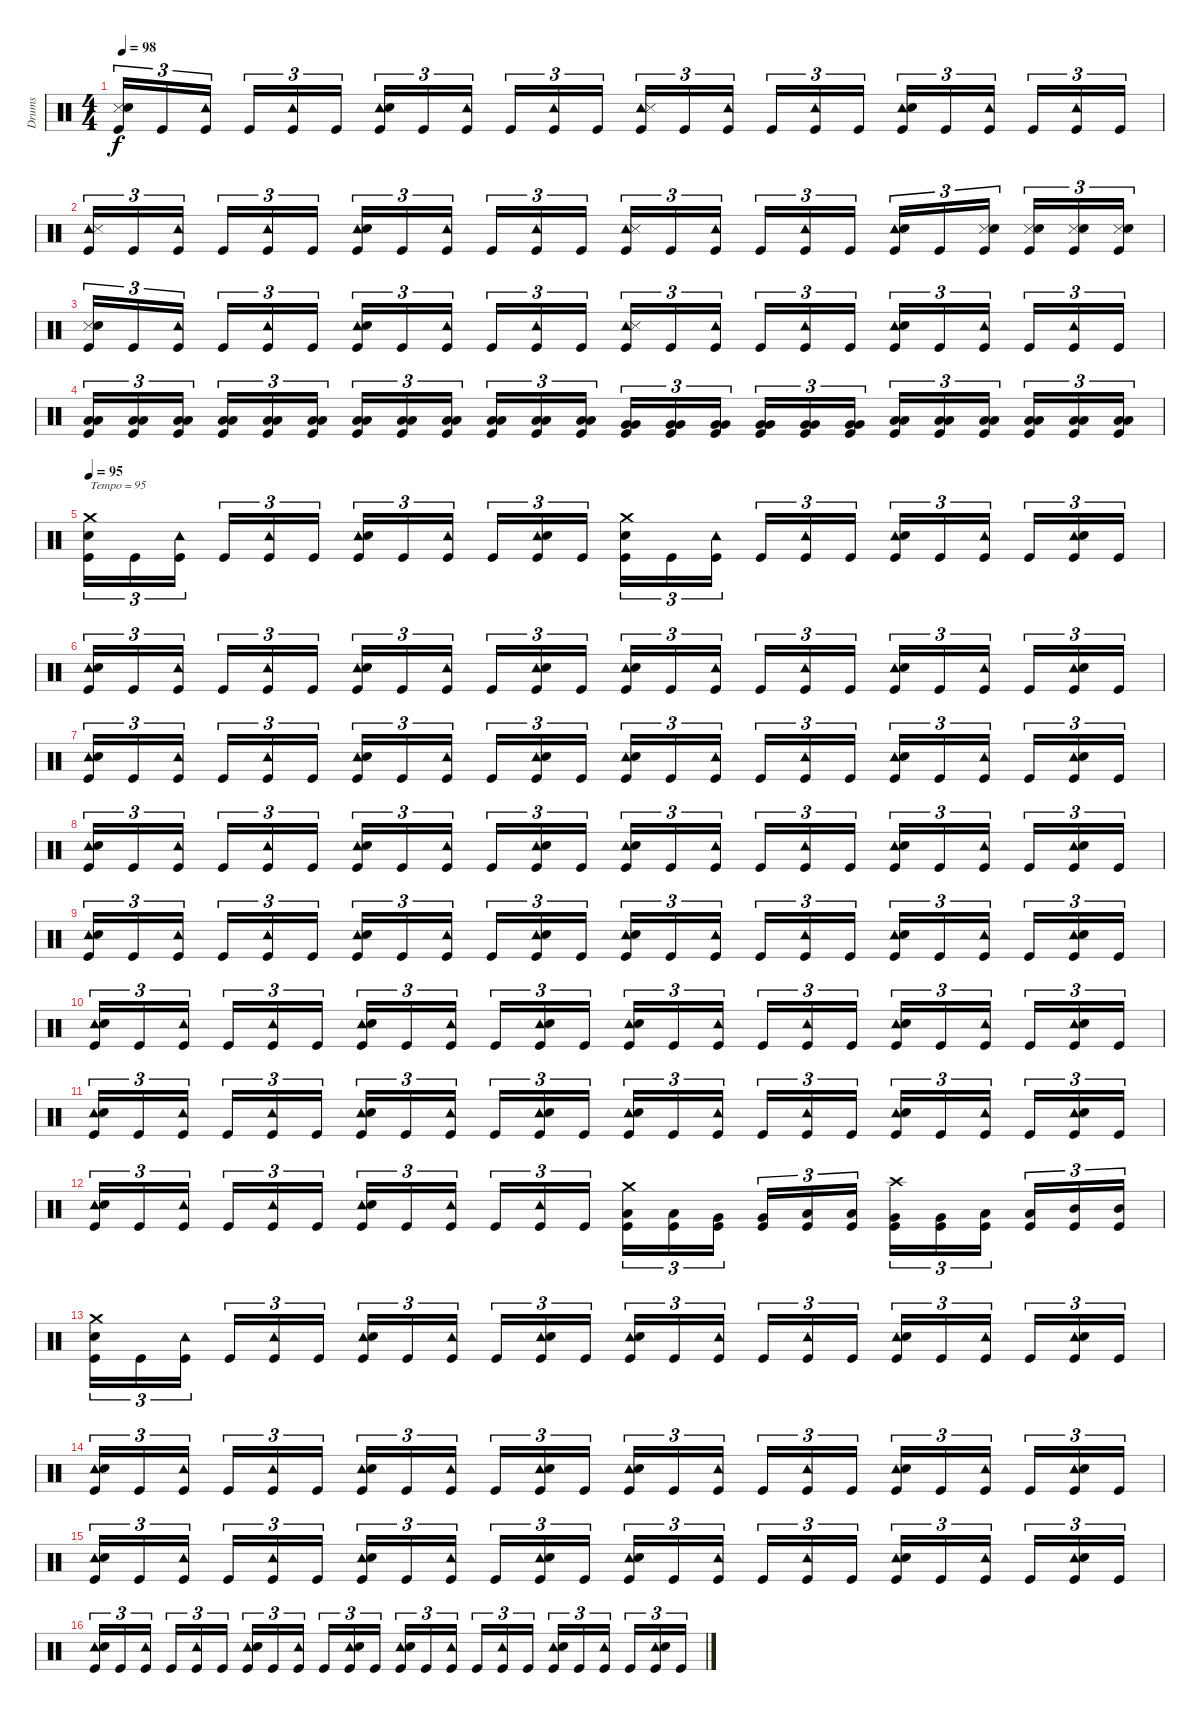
\track ("Drums" "Drums") {instrument percussion}
\staff {score}
\articulation defaults
\ts (4 4)
\tempo 98
\clef neutral
\ks c
("Snare (side stick) 3" "Snare (hit) 2" "Kick (hit)").16{tu (3 2) dy f} "Kick (hit)".16{tu (3 2)} ("Tambourine (hit)" "Kick (hit)").16{tu (3 2)} "Kick (hit)".16{tu (3 2)} ("Tambourine (hit)" "Kick (hit)").16{tu (3 2)} "Kick (hit)".16{tu (3 2)} ("Tambourine (hit)" "Snare (hit) 2" "Kick (hit)").16{tu (3 2)} "Kick (hit)".16{tu (3 2)} ("Tambourine (hit)" "Kick (hit)").16{tu (3 2)} "Kick (hit)".16{tu (3 2)} ("Tambourine (hit)" "Kick (hit)").16{tu (3 2)} "Kick (hit)".16{tu (3 2)} ("Tambourine (hit)" "Snare (side stick) 3" "Kick (hit)").16{tu (3 2)} "Kick (hit)".16{tu (3 2)} ("Tambourine (hit)" "Kick (hit)").16{tu (3 2)} "Kick (hit)".16{tu (3 2)} ("Tambourine (hit)" "Kick (hit)").16{tu (3 2)} "Kick (hit)".16{tu (3 2)} ("Tambourine (hit)" "Snare (hit) 2" "Kick (hit)").16{tu (3 2)} "Kick (hit)".16{tu (3 2)} ("Tambourine (hit)" "Kick (hit)").16{tu (3 2)} "Kick (hit)".16{tu (3 2)} ("Tambourine (hit)" "Kick (hit)").16{tu (3 2)} "Kick (hit)".16{tu (3 2)} |
("Tambourine (hit)" "Snare (side stick) 3" "Kick (hit)").16{tu (3 2)} "Kick (hit)".16{tu (3 2)} ("Tambourine (hit)" "Kick (hit)").16{tu (3 2)} "Kick (hit)".16{tu (3 2)} ("Tambourine (hit)" "Kick (hit)").16{tu (3 2)} "Kick (hit)".16{tu (3 2)} ("Tambourine (hit)" "Snare (hit) 2" "Kick (hit)").16{tu (3 2)} "Kick (hit)".16{tu (3 2)} ("Tambourine (hit)" "Kick (hit)").16{tu (3 2)} "Kick (hit)".16{tu (3 2)} ("Tambourine (hit)" "Kick (hit)").16{tu (3 2)} "Kick (hit)".16{tu (3 2)} ("Tambourine (hit)" "Snare (side stick) 3" "Kick (hit)").16{tu (3 2)} "Kick (hit)".16{tu (3 2)} ("Tambourine (hit)" "Kick (hit)").16{tu (3 2)} "Kick (hit)".16{tu (3 2)} ("Tambourine (hit)" "Kick (hit)").16{tu (3 2)} "Kick (hit)".16{tu (3 2)} ("Tambourine (hit)" "Snare (hit) 2" "Kick (hit)").16{tu (3 2)} "Kick (hit)".16{tu (3 2)} ("Snare (side stick) 3" "Snare (hit) 2" "Kick (hit)").16{tu (3 2)} ("Snare (side stick) 3" "Snare (hit) 2" "Kick (hit)").16{tu (3 2)} ("Snare (side stick) 3" "Snare (hit) 2" "Kick (hit)").16{tu (3 2)} ("Snare (side stick) 3" "Snare (hit) 2" "Kick (hit)").16{tu (3 2)} |
("Snare (side stick) 3" "Snare (hit) 2" "Kick (hit)").16{tu (3 2)} "Kick (hit)".16{tu (3 2)} ("Tambourine (hit)" "Kick (hit)").16{tu (3 2)} "Kick (hit)".16{tu (3 2)} ("Tambourine (hit)" "Kick (hit)").16{tu (3 2)} "Kick (hit)".16{tu (3 2)} ("Tambourine (hit)" "Snare (hit) 2" "Kick (hit)").16{tu (3 2)} "Kick (hit)".16{tu (3 2)} ("Tambourine (hit)" "Kick (hit)").16{tu (3 2)} "Kick (hit)".16{tu (3 2)} ("Tambourine (hit)" "Kick (hit)").16{tu (3 2)} "Kick (hit)".16{tu (3 2)} ("Tambourine (hit)" "Snare (side stick) 3" "Kick (hit)").16{tu (3 2)} "Kick (hit)".16{tu (3 2)} ("Tambourine (hit)" "Kick (hit)").16{tu (3 2)} "Kick (hit)".16{tu (3 2)} ("Tambourine (hit)" "Kick (hit)").16{tu (3 2)} "Kick (hit)".16{tu (3 2)} ("Tambourine (hit)" "Snare (hit) 2" "Kick (hit)").16{tu (3 2)} "Kick (hit)".16{tu (3 2)} ("Tambourine (hit)" "Kick (hit)").16{tu (3 2)} "Kick (hit)".16{tu (3 2)} ("Tambourine (hit)" "Kick (hit)").16{tu (3 2)} "Kick (hit)".16{tu (3 2)} |
("Low Floor Tom (hit)" "Low Floor Tom (hit)" "Kick (hit)").16{tu (3 2)} ("Low Floor Tom (hit)" "Low Floor Tom (hit)" "Kick (hit)").16{tu (3 2)} ("Low Floor Tom (hit)" "Low Floor Tom (hit)" "Kick (hit)").16{tu (3 2)} ("Low Floor Tom (hit)" "Low Floor Tom (hit)" "Kick (hit)").16{tu (3 2)} ("Low Floor Tom (hit)" "Low Floor Tom (hit)" "Kick (hit)").16{tu (3 2)} ("Low Floor Tom (hit)" "Low Floor Tom (hit)" "Kick (hit)").16{tu (3 2)} ("Low Floor Tom (hit)" "Low Floor Tom (hit)" "Kick (hit)").16{tu (3 2)} ("Low Floor Tom (hit)" "Low Floor Tom (hit)" "Kick (hit)").16{tu (3 2)} ("Low Floor Tom (hit)" "Low Floor Tom (hit)" "Kick (hit)").16{tu (3 2)} ("Low Floor Tom (hit)" "Low Floor Tom (hit)" "Kick (hit)").16{tu (3 2)} ("Low Floor Tom (hit)" "Low Floor Tom (hit)" "Kick (hit)").16{tu (3 2)} ("Low Floor Tom (hit)" "Low Floor Tom (hit)" "Kick (hit)").16{tu (3 2)} ("Very Low Tom (hit)" "Very Low Tom (hit)" "Kick (hit)").16{tu (3 2)} ("Very Low Tom (hit)" "Very Low Tom (hit)" "Kick (hit)").16{tu (3 2)} ("Very Low Tom (hit)" "Very Low Tom (hit)" "Kick (hit)").16{tu (3 2)} ("Very Low Tom (hit)" "Very Low Tom (hit)" "Kick (hit)").16{tu (3 2)} ("Very Low Tom (hit)" "Very Low Tom (hit)" "Kick (hit)").16{tu (3 2)} ("Very Low Tom (hit)" "Very Low Tom (hit)" "Kick (hit)").16{tu (3 2)} ("Low Tom (hit)" "Low Tom (hit)" "Kick (hit)").16{tu (3 2)} ("Low Tom (hit)" "Low Tom (hit)" "Kick (hit)").16{tu (3 2)} ("Low Tom (hit)" "Low Tom (hit)" "Kick (hit)").16{tu (3 2)} ("Low Tom (hit)" "Low Tom (hit)" "Kick (hit)").16{tu (3 2)} ("Low Tom (hit)" "Low Tom (hit)" "Kick (hit)").16{tu (3 2)} ("Low Tom (hit)" "Low Tom (hit)" "Kick (hit)").16{tu (3 2)} |
\tempo 95
("Crash medium (hit)" "Snare (hit) 2" "Kick (hit)").16{tu (3 2) txt "Tempo = 95"} "Kick (hit)".16{tu (3 2)} ("Tambourine (hit)" "Kick (hit)").16{tu (3 2)} "Kick (hit)".16{tu (3 2)} ("Tambourine (hit)" "Kick (hit)").16{tu (3 2)} "Kick (hit)".16{tu (3 2)} ("Tambourine (hit)" "Snare (hit) 2" "Kick (hit)").16{tu (3 2)} "Kick (hit)".16{tu (3 2)} ("Tambourine (hit)" "Kick (hit)").16{tu (3 2)} "Kick (hit)".16{tu (3 2)} ("Tambourine (hit)" "Snare (hit) 2" "Kick (hit)").16{tu (3 2)} "Kick (hit)".16{tu (3 2)} ("Crash medium (hit)" "Snare (hit) 2" "Kick (hit)").16{tu (3 2)} "Kick (hit)".16{tu (3 2)} ("Tambourine (hit)" "Kick (hit)").16{tu (3 2)} "Kick (hit)".16{tu (3 2)} ("Tambourine (hit)" "Kick (hit)").16{tu (3 2)} "Kick (hit)".16{tu (3 2)} ("Tambourine (hit)" "Snare (hit) 2" "Kick (hit)").16{tu (3 2)} "Kick (hit)".16{tu (3 2)} ("Tambourine (hit)" "Kick (hit)").16{tu (3 2)} "Kick (hit)".16{tu (3 2)} ("Tambourine (hit)" "Snare (hit) 2" "Kick (hit)").16{tu (3 2)} "Kick (hit)".16{tu (3 2)} |
("Tambourine (hit)" "Snare (hit) 2" "Kick (hit)").16{tu (3 2)} "Kick (hit)".16{tu (3 2)} ("Tambourine (hit)" "Kick (hit)").16{tu (3 2)} "Kick (hit)".16{tu (3 2)} ("Tambourine (hit)" "Kick (hit)").16{tu (3 2)} "Kick (hit)".16{tu (3 2)} ("Tambourine (hit)" "Snare (hit) 2" "Kick (hit)").16{tu (3 2)} "Kick (hit)".16{tu (3 2)} ("Tambourine (hit)" "Kick (hit)").16{tu (3 2)} "Kick (hit)".16{tu (3 2)} ("Tambourine (hit)" "Snare (hit) 2" "Kick (hit)").16{tu (3 2)} "Kick (hit)".16{tu (3 2)} ("Tambourine (hit)" "Snare (hit) 2" "Kick (hit)").16{tu (3 2)} "Kick (hit)".16{tu (3 2)} ("Tambourine (hit)" "Kick (hit)").16{tu (3 2)} "Kick (hit)".16{tu (3 2)} ("Tambourine (hit)" "Kick (hit)").16{tu (3 2)} "Kick (hit)".16{tu (3 2)} ("Tambourine (hit)" "Snare (hit) 2" "Kick (hit)").16{tu (3 2)} "Kick (hit)".16{tu (3 2)} ("Tambourine (hit)" "Kick (hit)").16{tu (3 2)} "Kick (hit)".16{tu (3 2)} ("Tambourine (hit)" "Snare (hit) 2" "Kick (hit)").16{tu (3 2)} "Kick (hit)".16{tu (3 2)} |
("Tambourine (hit)" "Snare (hit) 2" "Kick (hit)").16{tu (3 2)} "Kick (hit)".16{tu (3 2)} ("Tambourine (hit)" "Kick (hit)").16{tu (3 2)} "Kick (hit)".16{tu (3 2)} ("Tambourine (hit)" "Kick (hit)").16{tu (3 2)} "Kick (hit)".16{tu (3 2)} ("Tambourine (hit)" "Snare (hit) 2" "Kick (hit)").16{tu (3 2)} "Kick (hit)".16{tu (3 2)} ("Tambourine (hit)" "Kick (hit)").16{tu (3 2)} "Kick (hit)".16{tu (3 2)} ("Tambourine (hit)" "Snare (hit) 2" "Kick (hit)").16{tu (3 2)} "Kick (hit)".16{tu (3 2)} ("Tambourine (hit)" "Snare (hit) 2" "Kick (hit)").16{tu (3 2)} "Kick (hit)".16{tu (3 2)} ("Tambourine (hit)" "Kick (hit)").16{tu (3 2)} "Kick (hit)".16{tu (3 2)} ("Tambourine (hit)" "Kick (hit)").16{tu (3 2)} "Kick (hit)".16{tu (3 2)} ("Tambourine (hit)" "Snare (hit) 2" "Kick (hit)").16{tu (3 2)} "Kick (hit)".16{tu (3 2)} ("Tambourine (hit)" "Kick (hit)").16{tu (3 2)} "Kick (hit)".16{tu (3 2)} ("Tambourine (hit)" "Snare (hit) 2" "Kick (hit)").16{tu (3 2)} "Kick (hit)".16{tu (3 2)} |
("Tambourine (hit)" "Snare (hit) 2" "Kick (hit)").16{tu (3 2)} "Kick (hit)".16{tu (3 2)} ("Tambourine (hit)" "Kick (hit)").16{tu (3 2)} "Kick (hit)".16{tu (3 2)} ("Tambourine (hit)" "Kick (hit)").16{tu (3 2)} "Kick (hit)".16{tu (3 2)} ("Tambourine (hit)" "Snare (hit) 2" "Kick (hit)").16{tu (3 2)} "Kick (hit)".16{tu (3 2)} ("Tambourine (hit)" "Kick (hit)").16{tu (3 2)} "Kick (hit)".16{tu (3 2)} ("Tambourine (hit)" "Snare (hit) 2" "Kick (hit)").16{tu (3 2)} "Kick (hit)".16{tu (3 2)} ("Tambourine (hit)" "Snare (hit) 2" "Kick (hit)").16{tu (3 2)} "Kick (hit)".16{tu (3 2)} ("Tambourine (hit)" "Kick (hit)").16{tu (3 2)} "Kick (hit)".16{tu (3 2)} ("Tambourine (hit)" "Kick (hit)").16{tu (3 2)} "Kick (hit)".16{tu (3 2)} ("Tambourine (hit)" "Snare (hit) 2" "Kick (hit)").16{tu (3 2)} "Kick (hit)".16{tu (3 2)} ("Tambourine (hit)" "Kick (hit)").16{tu (3 2)} "Kick (hit)".16{tu (3 2)} ("Tambourine (hit)" "Snare (hit) 2" "Kick (hit)").16{tu (3 2)} "Kick (hit)".16{tu (3 2)} |
("Tambourine (hit)" "Snare (hit) 2" "Kick (hit)").16{tu (3 2)} "Kick (hit)".16{tu (3 2)} ("Tambourine (hit)" "Kick (hit)").16{tu (3 2)} "Kick (hit)".16{tu (3 2)} ("Tambourine (hit)" "Kick (hit)").16{tu (3 2)} "Kick (hit)".16{tu (3 2)} ("Tambourine (hit)" "Snare (hit) 2" "Kick (hit)").16{tu (3 2)} "Kick (hit)".16{tu (3 2)} ("Tambourine (hit)" "Kick (hit)").16{tu (3 2)} "Kick (hit)".16{tu (3 2)} ("Tambourine (hit)" "Snare (hit) 2" "Kick (hit)").16{tu (3 2)} "Kick (hit)".16{tu (3 2)} ("Tambourine (hit)" "Snare (hit) 2" "Kick (hit)").16{tu (3 2)} "Kick (hit)".16{tu (3 2)} ("Tambourine (hit)" "Kick (hit)").16{tu (3 2)} "Kick (hit)".16{tu (3 2)} ("Tambourine (hit)" "Kick (hit)").16{tu (3 2)} "Kick (hit)".16{tu (3 2)} ("Tambourine (hit)" "Snare (hit) 2" "Kick (hit)").16{tu (3 2)} "Kick (hit)".16{tu (3 2)} ("Tambourine (hit)" "Kick (hit)").16{tu (3 2)} "Kick (hit)".16{tu (3 2)} ("Tambourine (hit)" "Snare (hit) 2" "Kick (hit)").16{tu (3 2)} "Kick (hit)".16{tu (3 2)} |
("Tambourine (hit)" "Snare (hit) 2" "Kick (hit)").16{tu (3 2)} "Kick (hit)".16{tu (3 2)} ("Tambourine (hit)" "Kick (hit)").16{tu (3 2)} "Kick (hit)".16{tu (3 2)} ("Tambourine (hit)" "Kick (hit)").16{tu (3 2)} "Kick (hit)".16{tu (3 2)} ("Tambourine (hit)" "Snare (hit) 2" "Kick (hit)").16{tu (3 2)} "Kick (hit)".16{tu (3 2)} ("Tambourine (hit)" "Kick (hit)").16{tu (3 2)} "Kick (hit)".16{tu (3 2)} ("Tambourine (hit)" "Snare (hit) 2" "Kick (hit)").16{tu (3 2)} "Kick (hit)".16{tu (3 2)} ("Tambourine (hit)" "Snare (hit) 2" "Kick (hit)").16{tu (3 2)} "Kick (hit)".16{tu (3 2)} ("Tambourine (hit)" "Kick (hit)").16{tu (3 2)} "Kick (hit)".16{tu (3 2)} ("Tambourine (hit)" "Kick (hit)").16{tu (3 2)} "Kick (hit)".16{tu (3 2)} ("Tambourine (hit)" "Snare (hit) 2" "Kick (hit)").16{tu (3 2)} "Kick (hit)".16{tu (3 2)} ("Tambourine (hit)" "Kick (hit)").16{tu (3 2)} "Kick (hit)".16{tu (3 2)} ("Tambourine (hit)" "Snare (hit) 2" "Kick (hit)").16{tu (3 2)} "Kick (hit)".16{tu (3 2)} |
("Tambourine (hit)" "Snare (hit) 2" "Kick (hit)").16{tu (3 2)} "Kick (hit)".16{tu (3 2)} ("Tambourine (hit)" "Kick (hit)").16{tu (3 2)} "Kick (hit)".16{tu (3 2)} ("Tambourine (hit)" "Kick (hit)").16{tu (3 2)} "Kick (hit)".16{tu (3 2)} ("Tambourine (hit)" "Snare (hit) 2" "Kick (hit)").16{tu (3 2)} "Kick (hit)".16{tu (3 2)} ("Tambourine (hit)" "Kick (hit)").16{tu (3 2)} "Kick (hit)".16{tu (3 2)} ("Tambourine (hit)" "Snare (hit) 2" "Kick (hit)").16{tu (3 2)} "Kick (hit)".16{tu (3 2)} ("Tambourine (hit)" "Snare (hit) 2" "Kick (hit)").16{tu (3 2)} "Kick (hit)".16{tu (3 2)} ("Tambourine (hit)" "Kick (hit)").16{tu (3 2)} "Kick (hit)".16{tu (3 2)} ("Tambourine (hit)" "Kick (hit)").16{tu (3 2)} "Kick (hit)".16{tu (3 2)} ("Tambourine (hit)" "Snare (hit) 2" "Kick (hit)").16{tu (3 2)} "Kick (hit)".16{tu (3 2)} ("Tambourine (hit)" "Kick (hit)").16{tu (3 2)} "Kick (hit)".16{tu (3 2)} ("Tambourine (hit)" "Snare (hit) 2" "Kick (hit)").16{tu (3 2)} "Kick (hit)".16{tu (3 2)} |
("Tambourine (hit)" "Snare (hit) 2" "Kick (hit)").16{tu (3 2)} "Kick (hit)".16{tu (3 2)} ("Tambourine (hit)" "Kick (hit)").16{tu (3 2)} "Kick (hit)".16{tu (3 2)} ("Tambourine (hit)" "Kick (hit)").16{tu (3 2)} "Kick (hit)".16{tu (3 2)} ("Tambourine (hit)" "Snare (hit) 2" "Kick (hit)").16{tu (3 2)} "Kick (hit)".16{tu (3 2)} ("Tambourine (hit)" "Kick (hit)").16{tu (3 2)} "Kick (hit)".16{tu (3 2)} ("Tambourine (hit)" "Kick (hit)").16{tu (3 2)} "Kick (hit)".16{tu (3 2)} ("Crash medium (hit)" "Low Floor Tom (hit)" "Kick (hit)").16{tu (3 2)} ("Low Floor Tom (hit)" "Kick (hit)").16{tu (3 2)} ("Very Low Tom (hit)" "Kick (hit)").16{tu (3 2)} ("Very Low Tom (hit)" "Kick (hit)").16{tu (3 2)} ("Low Tom (hit)" "Kick (hit)").16{tu (3 2)} ("Low Tom (hit)" "Kick (hit)").16{tu (3 2)} ("Crash high (hit)" "Very Low Tom (hit)" "Kick (hit)").16{tu (3 2)} ("Very Low Tom (hit)" "Kick (hit)").16{tu (3 2)} ("Low Tom (hit)" "Kick (hit)").16{tu (3 2)} ("Low Tom (hit)" "Kick (hit)").16{tu (3 2)} ("Mid Tom (hit)" "Kick (hit)").16{tu (3 2)} ("Mid Tom (hit)" "Kick (hit)").16{tu (3 2)} |
("Crash medium (hit)" "Snare (hit) 2" "Kick (hit)").16{tu (3 2)} "Kick (hit)".16{tu (3 2)} ("Tambourine (hit)" "Kick (hit)").16{tu (3 2)} "Kick (hit)".16{tu (3 2)} ("Tambourine (hit)" "Kick (hit)").16{tu (3 2)} "Kick (hit)".16{tu (3 2)} ("Tambourine (hit)" "Snare (hit) 2" "Kick (hit)").16{tu (3 2)} "Kick (hit)".16{tu (3 2)} ("Tambourine (hit)" "Kick (hit)").16{tu (3 2)} "Kick (hit)".16{tu (3 2)} ("Tambourine (hit)" "Snare (hit) 2" "Kick (hit)").16{tu (3 2)} "Kick (hit)".16{tu (3 2)} ("Tambourine (hit)" "Snare (hit) 2" "Kick (hit)").16{tu (3 2)} "Kick (hit)".16{tu (3 2)} ("Tambourine (hit)" "Kick (hit)").16{tu (3 2)} "Kick (hit)".16{tu (3 2)} ("Tambourine (hit)" "Kick (hit)").16{tu (3 2)} "Kick (hit)".16{tu (3 2)} ("Tambourine (hit)" "Snare (hit) 2" "Kick (hit)").16{tu (3 2)} "Kick (hit)".16{tu (3 2)} ("Tambourine (hit)" "Kick (hit)").16{tu (3 2)} "Kick (hit)".16{tu (3 2)} ("Tambourine (hit)" "Snare (hit) 2" "Kick (hit)").16{tu (3 2)} "Kick (hit)".16{tu (3 2)} |
("Tambourine (hit)" "Snare (hit) 2" "Kick (hit)").16{tu (3 2)} "Kick (hit)".16{tu (3 2)} ("Tambourine (hit)" "Kick (hit)").16{tu (3 2)} "Kick (hit)".16{tu (3 2)} ("Tambourine (hit)" "Kick (hit)").16{tu (3 2)} "Kick (hit)".16{tu (3 2)} ("Tambourine (hit)" "Snare (hit) 2" "Kick (hit)").16{tu (3 2)} "Kick (hit)".16{tu (3 2)} ("Tambourine (hit)" "Kick (hit)").16{tu (3 2)} "Kick (hit)".16{tu (3 2)} ("Tambourine (hit)" "Snare (hit) 2" "Kick (hit)").16{tu (3 2)} "Kick (hit)".16{tu (3 2)} ("Tambourine (hit)" "Snare (hit) 2" "Kick (hit)").16{tu (3 2)} "Kick (hit)".16{tu (3 2)} ("Tambourine (hit)" "Kick (hit)").16{tu (3 2)} "Kick (hit)".16{tu (3 2)} ("Tambourine (hit)" "Kick (hit)").16{tu (3 2)} "Kick (hit)".16{tu (3 2)} ("Tambourine (hit)" "Snare (hit) 2" "Kick (hit)").16{tu (3 2)} "Kick (hit)".16{tu (3 2)} ("Tambourine (hit)" "Kick (hit)").16{tu (3 2)} "Kick (hit)".16{tu (3 2)} ("Tambourine (hit)" "Snare (hit) 2" "Kick (hit)").16{tu (3 2)} "Kick (hit)".16{tu (3 2)} |
("Tambourine (hit)" "Snare (hit) 2" "Kick (hit)").16{tu (3 2)} "Kick (hit)".16{tu (3 2)} ("Tambourine (hit)" "Kick (hit)").16{tu (3 2)} "Kick (hit)".16{tu (3 2)} ("Tambourine (hit)" "Kick (hit)").16{tu (3 2)} "Kick (hit)".16{tu (3 2)} ("Tambourine (hit)" "Snare (hit) 2" "Kick (hit)").16{tu (3 2)} "Kick (hit)".16{tu (3 2)} ("Tambourine (hit)" "Kick (hit)").16{tu (3 2)} "Kick (hit)".16{tu (3 2)} ("Tambourine (hit)" "Snare (hit) 2" "Kick (hit)").16{tu (3 2)} "Kick (hit)".16{tu (3 2)} ("Tambourine (hit)" "Snare (hit) 2" "Kick (hit)").16{tu (3 2)} "Kick (hit)".16{tu (3 2)} ("Tambourine (hit)" "Kick (hit)").16{tu (3 2)} "Kick (hit)".16{tu (3 2)} ("Tambourine (hit)" "Kick (hit)").16{tu (3 2)} "Kick (hit)".16{tu (3 2)} ("Tambourine (hit)" "Snare (hit) 2" "Kick (hit)").16{tu (3 2)} "Kick (hit)".16{tu (3 2)} ("Tambourine (hit)" "Kick (hit)").16{tu (3 2)} "Kick (hit)".16{tu (3 2)} ("Tambourine (hit)" "Snare (hit) 2" "Kick (hit)").16{tu (3 2)} "Kick (hit)".16{tu (3 2)} |
("Tambourine (hit)" "Snare (hit) 2" "Kick (hit)").16{tu (3 2)} "Kick (hit)".16{tu (3 2)} ("Tambourine (hit)" "Kick (hit)").16{tu (3 2)} "Kick (hit)".16{tu (3 2)} ("Tambourine (hit)" "Kick (hit)").16{tu (3 2)} "Kick (hit)".16{tu (3 2)} ("Tambourine (hit)" "Snare (hit) 2" "Kick (hit)").16{tu (3 2)} "Kick (hit)".16{tu (3 2)} ("Tambourine (hit)" "Kick (hit)").16{tu (3 2)} "Kick (hit)".16{tu (3 2)} ("Tambourine (hit)" "Snare (hit) 2" "Kick (hit)").16{tu (3 2)} "Kick (hit)".16{tu (3 2)} ("Tambourine (hit)" "Snare (hit) 2" "Kick (hit)").16{tu (3 2)} "Kick (hit)".16{tu (3 2)} ("Tambourine (hit)" "Kick (hit)").16{tu (3 2)} "Kick (hit)".16{tu (3 2)} ("Tambourine (hit)" "Kick (hit)").16{tu (3 2)} "Kick (hit)".16{tu (3 2)} ("Tambourine (hit)" "Snare (hit) 2" "Kick (hit)").16{tu (3 2)} "Kick (hit)".16{tu (3 2)} ("Tambourine (hit)" "Kick (hit)").16{tu (3 2)} "Kick (hit)".16{tu (3 2)} ("Tambourine (hit)" "Snare (hit) 2" "Kick (hit)").16{tu (3 2)} "Kick (hit)".16{tu (3 2)}
